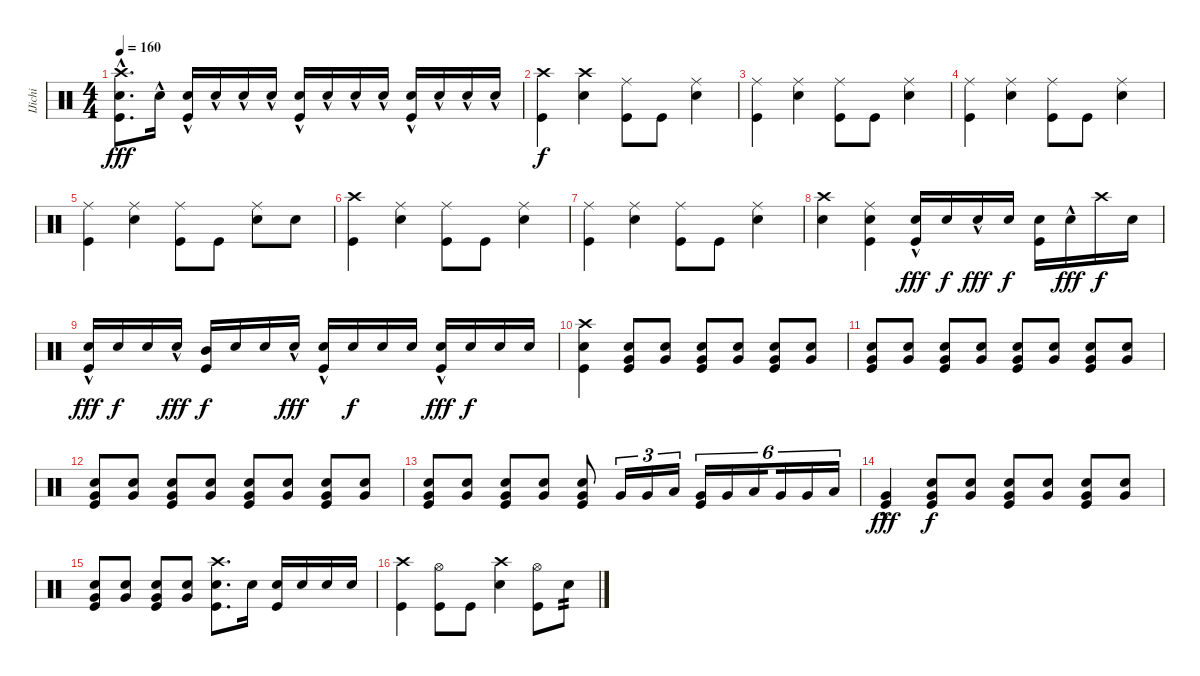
\track ("IJichi" "IJichi") {instrument percussion}
\staff {score}
\articulation defaults
\ts (4 4)
\tempo 160
\clef neutral
\ks c
("Crash high (hit)" "Snare (hit) 2"{hac} "Kick (hit)").8{d dy fff} "Snare (hit) 2"{hac}.16 ("Snare (hit) 2"{hac} "Kick (hit)").16 "Snare (hit) 2"{hac}.16 "Snare (hit) 2"{hac}.16 "Snare (hit) 2"{hac}.16 ("Snare (hit) 2"{hac} "Kick (hit)").16 "Snare (hit) 2"{hac}.16 "Snare (hit) 2"{hac}.16 "Snare (hit) 2"{hac}.16 ("Snare (hit) 2"{hac} "Kick (hit)").16 "Snare (hit) 2"{hac}.16 "Snare (hit) 2"{hac}.16 "Snare (hit) 2"{hac}.16 |
("Crash high (hit)" "Kick (hit)").4{dy f} ("Crash high (hit)" "Snare (hit) 2").4 ("Ride (middle)" "Kick (hit)").8 "Kick (hit)".8 ("Ride (middle)" "Snare (hit) 2").4 |
("Ride (middle)" "Kick (hit)").4 ("Ride (middle)" "Snare (hit) 2").4 ("Ride (middle)" "Kick (hit)").8 "Kick (hit)".8 ("Ride (middle)" "Snare (hit) 2").4 |
("Ride (middle)" "Kick (hit)").4 ("Ride (middle)" "Snare (hit) 2").4 ("Ride (middle)" "Kick (hit)").8 "Kick (hit)".8 ("Ride (middle)" "Snare (hit) 2").4 |
("Ride (middle)" "Kick (hit)").4 ("Ride (middle)" "Snare (hit) 2").4 ("Ride (middle)" "Kick (hit)").8 "Kick (hit)".8 ("Ride (middle)" "Snare (hit) 2").8 "Snare (hit) 2".8 |
("Crash high (hit)" "Kick (hit)").4 ("Ride (middle)" "Snare (hit) 2").4 ("Ride (middle)" "Kick (hit)").8 "Kick (hit)".8 ("Ride (middle)" "Snare (hit) 2").4 |
("Ride (middle)" "Kick (hit)").4 ("Ride (middle)" "Snare (hit) 2").4 ("Ride (middle)" "Kick (hit)").8 "Kick (hit)".8 ("Ride (middle)" "Snare (hit) 2").4 |
("Crash high (hit)" "Snare (hit) 2").4 ("Ride (middle)" "Snare (hit) 2" "Kick (hit)").4 ("Snare (hit) 2"{hac} "Kick (hit)").16{dy fff} "Snare (hit) 2".16{dy f} "Snare (hit) 2"{hac}.16{dy fff} "Snare (hit) 2".16{dy f} ("Snare (hit) 2" "Kick (hit)").16 "Snare (hit) 2"{hac}.16{dy fff} "Crash high (hit)".16{dy f} "Snare (hit) 2".16 |
("Snare (hit) 2"{hac} "Kick (hit)").16{dy fff} "Snare (hit) 2".16{dy f} "Snare (hit) 2".16 "Snare (hit) 2"{hac}.16{dy fff} ("Mid Tom (hit)" "Kick (hit)").16{dy f} "Snare (hit) 2".16 "Snare (hit) 2".16 "Snare (hit) 2"{hac}.16{dy fff} ("Snare (hit) 2"{hac} "Kick (hit)").16 "Snare (hit) 2".16{dy f} "Snare (hit) 2".16 "Snare (hit) 2".16 ("Snare (hit) 2"{hac} "Kick (hit)").16{dy fff} "Snare (hit) 2".16{dy f} "Snare (hit) 2".16 "Snare (hit) 2".16{volume 6} |
("Crash high (hit)" "Snare (hit) 2" "Kick (hit)").4{volume 16} ("Snare (hit) 2" "Very Low Tom (hit)" "Kick (hit)").8 ("Snare (hit) 2" "Very Low Tom (hit)").8 ("Snare (hit) 2" "Very Low Tom (hit)" "Kick (hit)").8 ("Snare (hit) 2" "Very Low Tom (hit)").8 ("Snare (hit) 2" "Very Low Tom (hit)" "Kick (hit)").8 ("Snare (hit) 2" "Very Low Tom (hit)").8 |
("Snare (hit) 2" "Very Low Tom (hit)" "Kick (hit)").8 ("Snare (hit) 2" "Very Low Tom (hit)").8 ("Snare (hit) 2" "Very Low Tom (hit)" "Kick (hit)").8 ("Snare (hit) 2" "Very Low Tom (hit)").8 ("Snare (hit) 2" "Very Low Tom (hit)" "Kick (hit)").8 ("Snare (hit) 2" "Very Low Tom (hit)").8 ("Snare (hit) 2" "Very Low Tom (hit)" "Kick (hit)").8 ("Snare (hit) 2" "Very Low Tom (hit)").8 |
("Snare (hit) 2" "Very Low Tom (hit)" "Kick (hit)").8 ("Snare (hit) 2" "Very Low Tom (hit)").8 ("Snare (hit) 2" "Very Low Tom (hit)" "Kick (hit)").8 ("Snare (hit) 2" "Very Low Tom (hit)").8 ("Snare (hit) 2" "Very Low Tom (hit)" "Kick (hit)").8 ("Snare (hit) 2" "Very Low Tom (hit)").8 ("Snare (hit) 2" "Very Low Tom (hit)" "Kick (hit)").8 ("Snare (hit) 2" "Very Low Tom (hit)").8 |
("Snare (hit) 2" "Very Low Tom (hit)" "Kick (hit)").8 ("Snare (hit) 2" "Very Low Tom (hit)").8 ("Snare (hit) 2" "Very Low Tom (hit)" "Kick (hit)").8 ("Snare (hit) 2" "Very Low Tom (hit)").8 ("Snare (hit) 2" "Very Low Tom (hit)" "Kick (hit)").8 "Very Low Tom (hit)".16{tu (3 2)} "Very Low Tom (hit)".16{tu (3 2)} "Low Tom (hit)".16{tu (3 2)} ("Very Low Tom (hit)" "Kick (hit)").16{tu (6 4)} "Very Low Tom (hit)".16{tu (6 4)} "Low Tom (hit)".16{tu (6 4) beam splitsecondary} "Very Low Tom (hit)".16{tu (6 4)} "Very Low Tom (hit)".16{tu (6 4)} "Low Tom (hit)".16{tu (6 4)} |
("Very Low Tom (hit)"{hac} "Kick (hit)").4{dy fff} ("Snare (hit) 2" "Very Low Tom (hit)" "Kick (hit)").8{dy f} ("Snare (hit) 2" "Very Low Tom (hit)").8 ("Snare (hit) 2" "Very Low Tom (hit)" "Kick (hit)").8 ("Snare (hit) 2" "Very Low Tom (hit)").8 ("Snare (hit) 2" "Very Low Tom (hit)" "Kick (hit)").8 ("Snare (hit) 2" "Very Low Tom (hit)").8 |
("Snare (hit) 2" "Very Low Tom (hit)" "Kick (hit)").8 ("Snare (hit) 2" "Very Low Tom (hit)").8 ("Snare (hit) 2" "Very Low Tom (hit)" "Kick (hit)").8 ("Snare (hit) 2" "Very Low Tom (hit)").8 ("Crash high (hit)" "Snare (hit) 2" "Kick (hit)").8{d} "Snare (hit) 2".16 ("Snare (hit) 2" "Kick (hit)").16 "Snare (hit) 2".16 "Snare (hit) 2".16 "Snare (hit) 2".16 |
("Crash high (hit)" "Kick (hit)").4 ("Hi-Hat (open)" "Kick (hit)").8 "Kick (hit)".8 ("Crash high (hit)" "Snare (hit) 2").4 ("Hi-Hat (open)" "Kick (hit)").8 "Snare (hit) 2".8{tp 2}
